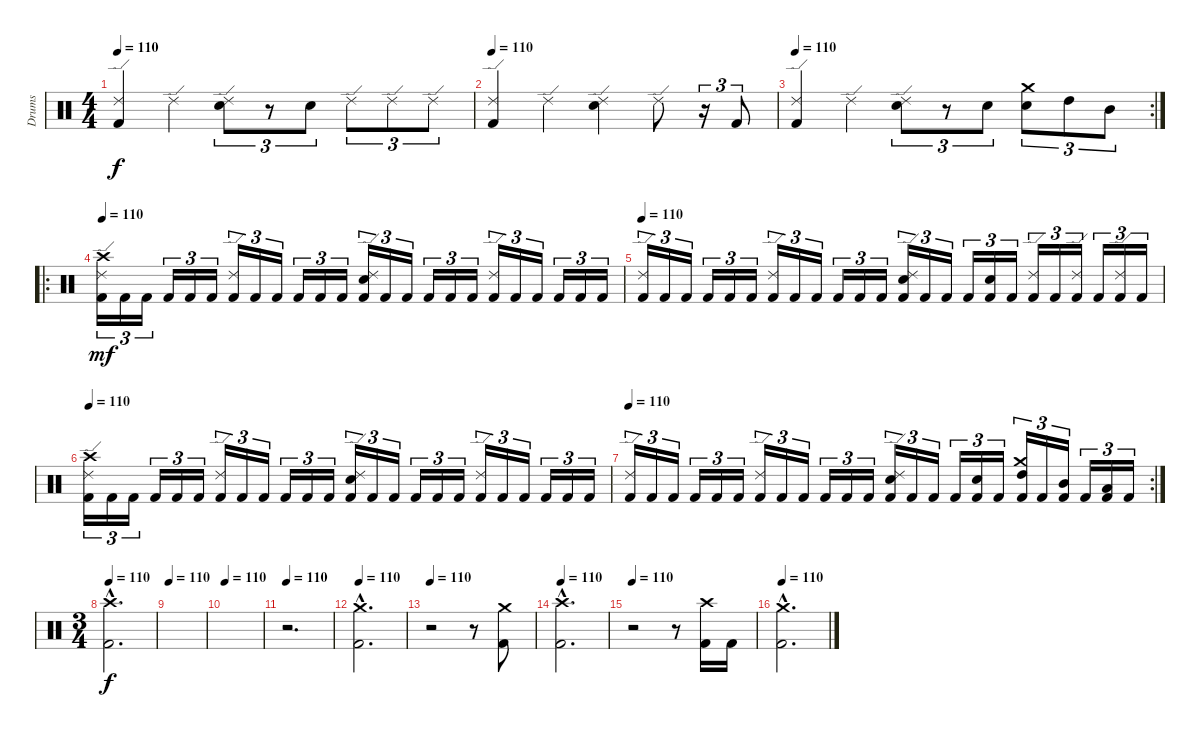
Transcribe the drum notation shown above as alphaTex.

\track ("Drums" "Drums") {instrument percussion}
\staff {score}
\articulation defaults
\ts (4 4)
\tempo 110
\clef neutral
\ks c
("Ride (edge) 2" "Kick (hit) 2").4{dy f} "Ride (edge) 2".4 ("Ride (edge) 2" "Electric Snare (hit)").8{tu (3 2)} r.8{tu (3 2)} "Electric Snare (hit)".8{tu (3 2)} "Ride (edge) 2".8{tu (3 2)} "Ride (edge) 2".8{tu (3 2)} "Ride (edge) 2".8{tu (3 2)} |
\tempo 110
("Ride (edge) 2" "Kick (hit) 2").4 "Ride (edge) 2".4 ("Ride (edge) 2" "Electric Snare (hit)").4 "Ride (edge) 2".8 r.16{tu (3 2)} "Kick (hit) 2".8{tu (3 2)} |
\rc 2
\tempo 110
("Ride (edge) 2" "Kick (hit) 2").4 "Ride (edge) 2".4 ("Ride (edge) 2" "Electric Snare (hit)").8{tu (3 2)} r.8{tu (3 2)} "Electric Snare (hit)".8{tu (3 2)} ("Crash medium (hit)" "Electric Snare (hit)").8{tu (3 2)} "High Tom (hit)".8{tu (3 2)} "Mid Tom (hit)".8{tu (3 2)} |
\ro
\tempo 110
("Ride (edge) 2" "Crash high (hit)" "Kick (hit) 2").16{tu (3 2) dy mf volume 12} "Kick (hit) 2".16{tu (3 2)} "Kick (hit) 2".16{tu (3 2)} "Kick (hit) 2".16{tu (3 2)} "Kick (hit) 2".16{tu (3 2)} "Kick (hit) 2".16{tu (3 2)} ("Ride (edge) 2" "Kick (hit) 2").16{tu (3 2)} "Kick (hit) 2".16{tu (3 2)} "Kick (hit) 2".16{tu (3 2)} "Kick (hit) 2".16{tu (3 2)} "Kick (hit) 2".16{tu (3 2)} "Kick (hit) 2".16{tu (3 2)} ("Ride (edge) 2" "Electric Snare (hit)" "Kick (hit) 2").16{tu (3 2)} "Kick (hit) 2".16{tu (3 2)} "Kick (hit) 2".16{tu (3 2)} "Kick (hit) 2".16{tu (3 2)} "Kick (hit) 2".16{tu (3 2)} "Kick (hit) 2".16{tu (3 2)} ("Ride (edge) 2" "Kick (hit) 2").16{tu (3 2)} "Kick (hit) 2".16{tu (3 2)} "Kick (hit) 2".16{tu (3 2)} "Kick (hit) 2".16{tu (3 2)} "Kick (hit) 2".16{tu (3 2)} "Kick (hit) 2".16{tu (3 2)} |
\tempo 110
("Ride (edge) 2" "Kick (hit) 2").16{tu (3 2)} "Kick (hit) 2".16{tu (3 2)} "Kick (hit) 2".16{tu (3 2)} "Kick (hit) 2".16{tu (3 2)} "Kick (hit) 2".16{tu (3 2)} "Kick (hit) 2".16{tu (3 2)} ("Ride (edge) 2" "Kick (hit) 2").16{tu (3 2)} "Kick (hit) 2".16{tu (3 2)} "Kick (hit) 2".16{tu (3 2)} "Kick (hit) 2".16{tu (3 2)} "Kick (hit) 2".16{tu (3 2)} "Kick (hit) 2".16{tu (3 2)} ("Ride (edge) 2" "Electric Snare (hit)" "Kick (hit) 2").16{tu (3 2)} "Kick (hit) 2".16{tu (3 2)} "Kick (hit) 2".16{tu (3 2)} "Kick (hit) 2".16{tu (3 2)} ("Electric Snare (hit)" "Kick (hit) 2").16{tu (3 2)} "Kick (hit) 2".16{tu (3 2)} ("Ride (edge) 2" "Kick (hit) 2").16{tu (3 2)} "Kick (hit) 2".16{tu (3 2)} ("Ride (edge) 2" "Kick (hit) 2").16{tu (3 2)} "Kick (hit) 2".16{tu (3 2)} ("Ride (edge) 2" "Kick (hit) 2").16{tu (3 2)} "Kick (hit) 2".16{tu (3 2)} |
\tempo 110
("Ride (edge) 2" "Crash high (hit)" "Kick (hit) 2").16{tu (3 2)} "Kick (hit) 2".16{tu (3 2)} "Kick (hit) 2".16{tu (3 2)} "Kick (hit) 2".16{tu (3 2)} "Kick (hit) 2".16{tu (3 2)} "Kick (hit) 2".16{tu (3 2)} ("Ride (edge) 2" "Kick (hit) 2").16{tu (3 2)} "Kick (hit) 2".16{tu (3 2)} "Kick (hit) 2".16{tu (3 2)} "Kick (hit) 2".16{tu (3 2)} "Kick (hit) 2".16{tu (3 2)} "Kick (hit) 2".16{tu (3 2)} ("Ride (edge) 2" "Electric Snare (hit)" "Kick (hit) 2").16{tu (3 2)} "Kick (hit) 2".16{tu (3 2)} "Kick (hit) 2".16{tu (3 2)} "Kick (hit) 2".16{tu (3 2)} "Kick (hit) 2".16{tu (3 2)} "Kick (hit) 2".16{tu (3 2)} ("Ride (edge) 2" "Kick (hit) 2").16{tu (3 2)} "Kick (hit) 2".16{tu (3 2)} "Kick (hit) 2".16{tu (3 2)} "Kick (hit) 2".16{tu (3 2)} "Kick (hit) 2".16{tu (3 2)} "Kick (hit) 2".16{tu (3 2)} |
\rc 2
\tempo 110
("Ride (edge) 2" "Kick (hit) 2").16{tu (3 2)} "Kick (hit) 2".16{tu (3 2)} "Kick (hit) 2".16{tu (3 2)} "Kick (hit) 2".16{tu (3 2)} "Kick (hit) 2".16{tu (3 2)} "Kick (hit) 2".16{tu (3 2)} ("Ride (edge) 2" "Kick (hit) 2").16{tu (3 2)} "Kick (hit) 2".16{tu (3 2)} "Kick (hit) 2".16{tu (3 2)} "Kick (hit) 2".16{tu (3 2)} "Kick (hit) 2".16{tu (3 2)} "Kick (hit) 2".16{tu (3 2)} ("Ride (edge) 2" "Electric Snare (hit)" "Kick (hit) 2").16{tu (3 2)} "Kick (hit) 2".16{tu (3 2)} "Kick (hit) 2".16{tu (3 2)} "Kick (hit) 2".16{tu (3 2)} ("Electric Snare (hit)" "Kick (hit) 2").16{tu (3 2)} "Kick (hit) 2".16{tu (3 2)} ("Crash medium (hit)" "High Tom (hit)" "Kick (hit) 2").16{tu (3 2)} "Kick (hit) 2".16{tu (3 2)} ("Mid Tom (hit)" "Kick (hit) 2").16{tu (3 2)} "Kick (hit) 2".16{tu (3 2)} ("Low Tom (hit)" "Kick (hit) 2").16{tu (3 2)} "Kick (hit) 2".16{tu (3 2)} |
\ts (3 4)
\tempo 110
("Crash high (hit)"{hac} "Kick (hit) 2"{hac}).2{d dy f volume 16} |
\tempo 110
|
\tempo 110
|
\tempo 110
r.2{d} |
\tempo 110
("Crash medium (hit)"{hac} "Kick (hit) 2"{hac}).2{d} |
\tempo 110
r.2 r.8 ("Crash medium (hit)" "Kick (hit) 2").8 |
\tempo 110
("Crash high (hit)"{hac} "Kick (hit) 2"{hac}).2{d} |
\tempo 110
r.2 r.8 ("Crash high (hit)" "Kick (hit) 2").16 "Kick (hit) 2".16 |
\tempo 110
("Crash medium (hit)"{hac} "Kick (hit) 2"{hac}).2{d}
